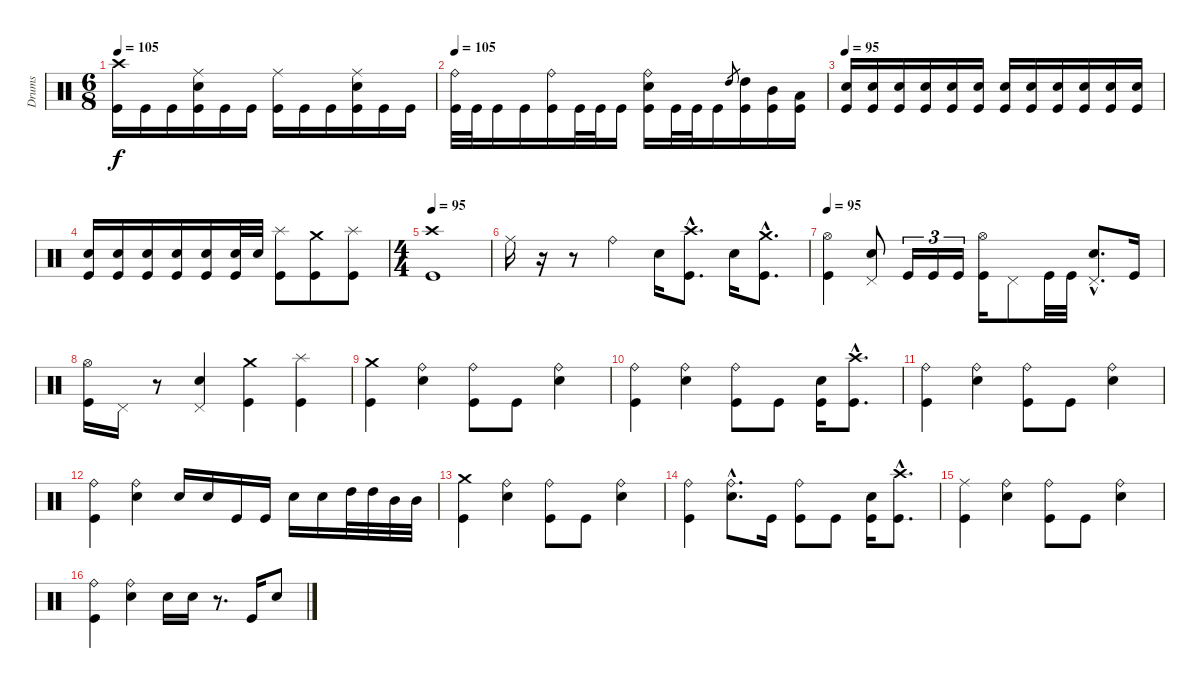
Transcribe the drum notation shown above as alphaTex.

\track ("Drums" "Drums") {instrument percussion}
\staff {score}
\articulation defaults
\ts (6 8)
\tempo 105
\clef neutral
\ks c
("Crash high (hit)" "Kick (hit)").16{dy f} "Kick (hit)".16 "Kick (hit)".16 ("Ride (middle)" "Electric Snare (hit)" "Kick (hit)").16 "Kick (hit)".16 "Kick (hit)".16 ("Ride (middle)" "Kick (hit)").16 "Kick (hit)".16 "Kick (hit)".16 ("Ride (middle)" "Electric Snare (hit)" "Kick (hit)").16 "Kick (hit)".16 "Kick (hit)".16 |
\tempo 105
("Ride (bell)" "Kick (hit)").32 "Kick (hit)".32 "Kick (hit)".16 "Kick (hit)".16 ("Ride (bell)" "Kick (hit)").16 "Kick (hit)".32 "Kick (hit)".32 "Kick (hit)".16 ("Ride (bell)" "Electric Snare (hit)" "Kick (hit)").16 "Kick (hit)".32 "Kick (hit)".32 "Kick (hit)".16 "High Tom (hit)"{sl}.8{gr} ("High Tom (hit)" "Kick (hit)").16 ("Mid Tom (hit)" "Kick (hit)").16 ("Low Tom (hit)" "Kick (hit)").16 |
\tempo 95
("Electric Snare (hit)" "Kick (hit)").16 ("Electric Snare (hit)" "Kick (hit)").16 ("Electric Snare (hit)" "Kick (hit)").16 ("Electric Snare (hit)" "Kick (hit)").16 ("Electric Snare (hit)" "Kick (hit)").16 ("Electric Snare (hit)" "Kick (hit)").16 ("Electric Snare (hit)" "Kick (hit)").16 ("Electric Snare (hit)" "Kick (hit)").16 ("Electric Snare (hit)" "Kick (hit)").16 ("Electric Snare (hit)" "Kick (hit)").16 ("Electric Snare (hit)" "Kick (hit)").16 ("Electric Snare (hit)" "Kick (hit)").16 |
("Electric Snare (hit)" "Kick (hit)").16 ("Electric Snare (hit)" "Kick (hit)").16 ("Electric Snare (hit)" "Kick (hit)").16 ("Electric Snare (hit)" "Kick (hit)").16 ("Electric Snare (hit)" "Kick (hit)").16 ("Electric Snare (hit)" "Kick (hit)").32 "Electric Snare (hit)".32 ("Splash (hit)" "Kick (hit)").8 ("Crash medium (hit)" "Kick (hit)").8 ("Splash (hit)" "Kick (hit)").8 |
\ts (4 4)
\tempo 95
("Crash high (hit)" "Kick (hit)").1 |
"Ride (middle)".16{balance 16} r.16 r.8 "Ride (bell)".4{balance 0} "Electric Snare (hit)".16{balance 8} ("Crash high (hit)"{hac} "Kick (hit)"{hac}).8{d} "Electric Snare (hit)".16 ("Crash medium (hit)"{hac} "Kick (hit)"{hac}).8{d} |
\tempo 95
("Hi-Hat (open)" "Kick (hit)").4 ("Pedal Hi-Hat (hit)" "Electric Snare (hit)").8 "Kick (hit)".16{tu (3 2)} "Kick (hit)".16{tu (3 2)} "Kick (hit)".16{tu (3 2)} ("Hi-Hat (open)" "Kick (hit)").16 "Pedal Hi-Hat (hit)".8 "Kick (hit)".32 "Kick (hit)".32 ("Pedal Hi-Hat (hit)"{hac} "Electric Snare (hit)"{hac}).8{d} "Kick (hit)".16 |
("Hi-Hat (open)" "Kick (hit)").16 "Pedal Hi-Hat (hit)".16 r.8 ("Pedal Hi-Hat (hit)" "Electric Snare (hit)").4 ("Crash medium (hit)" "Kick (hit)").4 ("Splash (hit)" "Kick (hit)").4 |
("Crash medium (hit)" "Kick (hit)").4 ("Ride (bell)" "Electric Snare (hit)").4 ("Ride (bell)" "Kick (hit)").8 "Kick (hit)".8 ("Ride (bell)" "Electric Snare (hit)").4 |
("Ride (bell)" "Kick (hit)").4 ("Ride (bell)" "Electric Snare (hit)").4 ("Ride (bell)" "Kick (hit)").8 "Kick (hit)".8 ("Electric Snare (hit)" "Kick (hit)").16 ("Crash high (hit)"{hac} "Kick (hit)"{hac}).8{d} |
("Ride (bell)" "Kick (hit)").4 ("Ride (bell)" "Electric Snare (hit)").4 ("Ride (bell)" "Kick (hit)").8 "Kick (hit)".8 ("Ride (bell)" "Electric Snare (hit)").4 |
("Ride (bell)" "Kick (hit)").4 ("Ride (bell)" "Electric Snare (hit)").4 "Electric Snare (hit)".16 "Electric Snare (hit)".16 "Kick (hit)".16 "Kick (hit)".16 "Electric Snare (hit)".16 "Electric Snare (hit)".16 "High Tom (hit)".32 "High Tom (hit)".32 "Mid Tom (hit)".32 "Mid Tom (hit)".32 |
("Crash medium (hit)" "Kick (hit)").4 ("Ride (bell)" "Electric Snare (hit)").4 ("Ride (bell)" "Kick (hit)").8 "Kick (hit)".8 ("Ride (bell)" "Electric Snare (hit)").4 |
("Ride (bell)" "Kick (hit)").4 ("Ride (bell)"{hac} "Electric Snare (hit)"{hac}).8{d} "Kick (hit)".16 ("Ride (bell)" "Kick (hit)").8 "Kick (hit)".8 ("Electric Snare (hit)" "Kick (hit)").16 ("Crash high (hit)"{hac} "Kick (hit)"{hac}).8{d} |
("Ride (middle)" "Kick (hit)").4 ("Ride (bell)" "Electric Snare (hit)").4 ("Ride (bell)" "Kick (hit)").8 "Kick (hit)".8 ("Ride (bell)" "Electric Snare (hit)").4 |
("Ride (bell)" "Kick (hit)").4 ("Ride (bell)" "Electric Snare (hit)").4 "Electric Snare (hit)".16 "Electric Snare (hit)".16 r.8{d} "Kick (hit)".16 "Electric Snare (hit)".8
